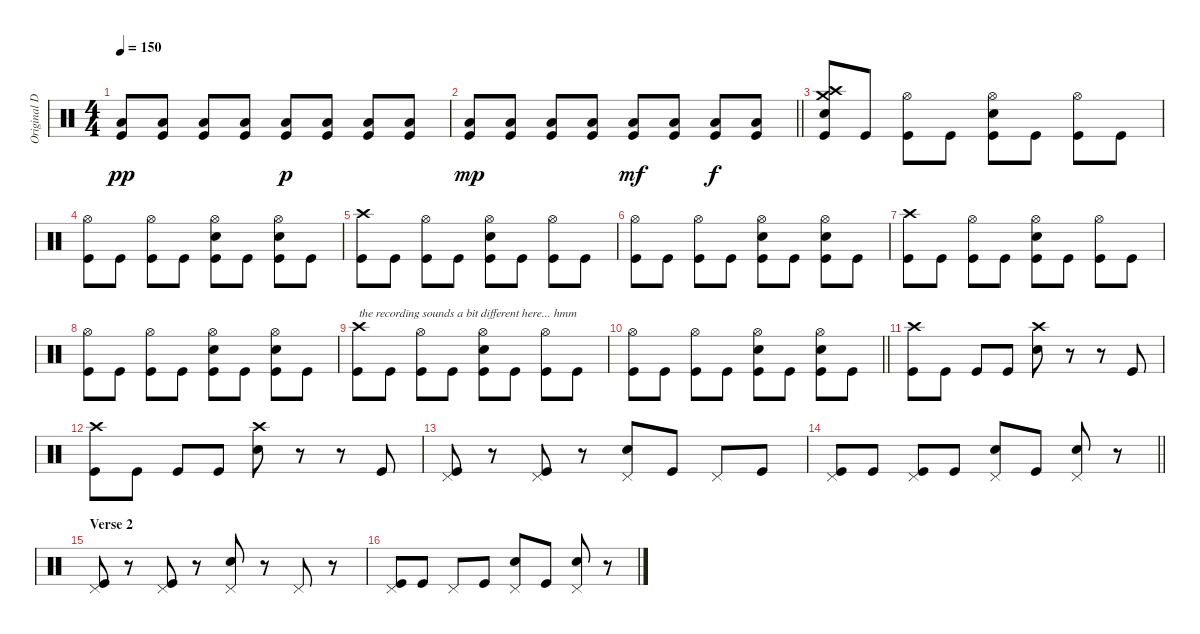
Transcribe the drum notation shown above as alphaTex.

\track ("Original Drums" "Original D") {instrument percussion}
\staff {score}
\articulation defaults
\ts (4 4)
\tempo 150
\clef neutral
\ks c
("Low Floor Tom (hit)" "Kick (hit)").8{dy pp} ("Low Floor Tom (hit)" "Kick (hit)").8 ("Low Floor Tom (hit)" "Kick (hit)").8 ("Low Floor Tom (hit)" "Kick (hit)").8 ("Low Floor Tom (hit)" "Kick (hit)").8{dy p} ("Low Floor Tom (hit)" "Kick (hit)").8 ("Low Floor Tom (hit)" "Kick (hit)").8 ("Low Floor Tom (hit)" "Kick (hit)").8 |
\barLineRight lightlight
("Low Floor Tom (hit)" "Kick (hit)").8{dy mp} ("Low Floor Tom (hit)" "Kick (hit)").8 ("Low Floor Tom (hit)" "Kick (hit)").8 ("Low Floor Tom (hit)" "Kick (hit)").8 ("Low Floor Tom (hit)" "Kick (hit)").8{dy mf} ("Low Floor Tom (hit)" "Kick (hit)").8 ("Low Floor Tom (hit)" "Kick (hit)").8{dy f} ("Low Floor Tom (hit)" "Kick (hit)").8 |
\section ("" "")
("Crash high (hit)" "Crash medium (hit)" "Snare (hit) 2" "Kick (hit)").8 "Kick (hit)".8 ("Hi-Hat (open)" "Kick (hit)").8 "Kick (hit)".8 ("Hi-Hat (open)" "Snare (hit) 2" "Kick (hit)").8 "Kick (hit)".8 ("Hi-Hat (open)" "Kick (hit)").8 "Kick (hit)".8 |
("Hi-Hat (open)" "Kick (hit)").8 "Kick (hit)".8 ("Hi-Hat (open)" "Kick (hit)").8 "Kick (hit)".8 ("Hi-Hat (open)" "Snare (hit) 2" "Kick (hit)").8 "Kick (hit)".8 ("Hi-Hat (open)" "Snare (hit) 2" "Kick (hit)").8 "Kick (hit)".8 |
("Crash high (hit)" "Kick (hit)").8 "Kick (hit)".8 ("Hi-Hat (open)" "Kick (hit)").8 "Kick (hit)".8 ("Hi-Hat (open)" "Snare (hit) 2" "Kick (hit)").8 "Kick (hit)".8 ("Hi-Hat (open)" "Kick (hit)").8 "Kick (hit)".8 |
("Hi-Hat (open)" "Kick (hit)").8 "Kick (hit)".8 ("Hi-Hat (open)" "Kick (hit)").8 "Kick (hit)".8 ("Hi-Hat (open)" "Snare (hit) 2" "Kick (hit)").8 "Kick (hit)".8 ("Hi-Hat (open)" "Snare (hit) 2" "Kick (hit)").8 "Kick (hit)".8 |
("Crash high (hit)" "Kick (hit)").8 "Kick (hit)".8 ("Hi-Hat (open)" "Kick (hit)").8 "Kick (hit)".8 ("Hi-Hat (open)" "Snare (hit) 2" "Kick (hit)").8 "Kick (hit)".8 ("Hi-Hat (open)" "Kick (hit)").8 "Kick (hit)".8 |
("Hi-Hat (open)" "Kick (hit)").8 "Kick (hit)".8 ("Hi-Hat (open)" "Kick (hit)").8 "Kick (hit)".8 ("Hi-Hat (open)" "Snare (hit) 2" "Kick (hit)").8 "Kick (hit)".8 ("Hi-Hat (open)" "Snare (hit) 2" "Kick (hit)").8 "Kick (hit)".8 |
("Crash high (hit)" "Kick (hit)").8{txt "the recording sounds a bit different here... hmm"} "Kick (hit)".8 ("Hi-Hat (open)" "Kick (hit)").8 "Kick (hit)".8 ("Hi-Hat (open)" "Snare (hit) 2" "Kick (hit)").8 "Kick (hit)".8 ("Hi-Hat (open)" "Kick (hit)").8 "Kick (hit)".8 |
\barLineRight lightlight
("Hi-Hat (open)" "Kick (hit)").8 "Kick (hit)".8 ("Hi-Hat (open)" "Kick (hit)").8 "Kick (hit)".8 ("Hi-Hat (open)" "Snare (hit) 2" "Kick (hit)").8 "Kick (hit)".8 ("Hi-Hat (open)" "Snare (hit) 2" "Kick (hit)").8 "Kick (hit)".8 |
\section ("" "")
("Crash high (hit)" "Kick (hit)").8 "Kick (hit)".8 "Kick (hit)".8 "Kick (hit)".8 ("Crash high (hit)" "Snare (hit) 2").8 r.8 r.8 "Kick (hit)".8 |
("Crash high (hit)" "Kick (hit)").8 "Kick (hit)".8 "Kick (hit)".8 "Kick (hit)".8 ("Crash high (hit)" "Snare (hit) 2").8 r.8 r.8 "Kick (hit)".8 |
("Pedal Hi-Hat (hit)" "Kick (hit)").8 r.8 ("Pedal Hi-Hat (hit)" "Kick (hit)").8 r.8 ("Pedal Hi-Hat (hit)" "Snare (hit) 2").8 "Kick (hit)".8 "Pedal Hi-Hat (hit)".8 "Kick (hit)".8 |
\barLineRight lightlight
("Pedal Hi-Hat (hit)" "Kick (hit)").8 "Kick (hit)".8 ("Pedal Hi-Hat (hit)" "Kick (hit)").8 "Kick (hit)".8 ("Pedal Hi-Hat (hit)" "Snare (hit) 2").8 "Kick (hit)".8 ("Pedal Hi-Hat (hit)" "Snare (hit) 2").8 r.8 |
\section ("" "Verse 2")
("Pedal Hi-Hat (hit)" "Kick (hit)").8 r.8 ("Pedal Hi-Hat (hit)" "Kick (hit)").8 r.8 ("Pedal Hi-Hat (hit)" "Snare (hit) 2").8 r.8 "Pedal Hi-Hat (hit)".8 r.8 |
("Pedal Hi-Hat (hit)" "Kick (hit)").8 "Kick (hit)".8 "Pedal Hi-Hat (hit)".8 "Kick (hit)".8 ("Pedal Hi-Hat (hit)" "Snare (hit) 2").8 "Kick (hit)".8 ("Pedal Hi-Hat (hit)" "Snare (hit) 2").8 r.8
